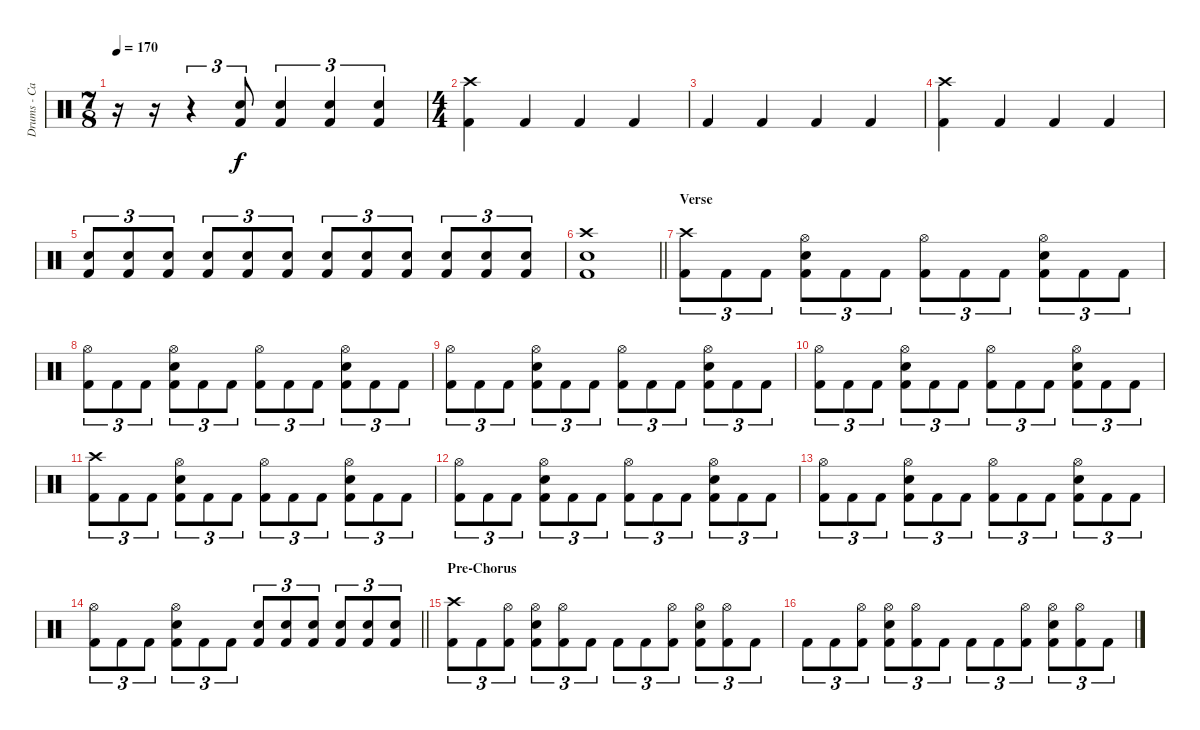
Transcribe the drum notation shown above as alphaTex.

\track ("Drums - Casey Grillo" "Drums - Ca") {instrument percussion}
\staff {score}
\articulation defaults
\ts (7 8)
\tempo 170
\clef neutral
\ks c
r.16{dy f} r.16 r.4{tu (3 2)} ("Snare (hit) 2" "Kick (hit) 2").8{tu (3 2)} ("Snare (hit) 2" "Kick (hit) 2").4{tu (3 2)} ("Snare (hit) 2" "Kick (hit) 2").4{tu (3 2)} ("Snare (hit) 2" "Kick (hit) 2").4{tu (3 2)} |
\ts (4 4)
("Crash high (hit)" "Kick (hit) 2").4 "Kick (hit) 2".4 "Kick (hit) 2".4 "Kick (hit) 2".4 |
"Kick (hit) 2".4 "Kick (hit) 2".4 "Kick (hit) 2".4 "Kick (hit) 2".4 |
("Crash high (hit)" "Kick (hit) 2").4 "Kick (hit) 2".4 "Kick (hit) 2".4 "Kick (hit) 2".4 |
("Snare (hit) 2" "Kick (hit) 2").8{tu (3 2)} ("Snare (hit) 2" "Kick (hit) 2").8{tu (3 2)} ("Snare (hit) 2" "Kick (hit) 2").8{tu (3 2)} ("Snare (hit) 2" "Kick (hit) 2").8{tu (3 2)} ("Snare (hit) 2" "Kick (hit) 2").8{tu (3 2)} ("Snare (hit) 2" "Kick (hit) 2").8{tu (3 2)} ("Snare (hit) 2" "Kick (hit) 2").8{tu (3 2)} ("Snare (hit) 2" "Kick (hit) 2").8{tu (3 2)} ("Snare (hit) 2" "Kick (hit) 2").8{tu (3 2)} ("Snare (hit) 2" "Kick (hit) 2").8{tu (3 2)} ("Snare (hit) 2" "Kick (hit) 2").8{tu (3 2)} ("Snare (hit) 2" "Kick (hit) 2").8{tu (3 2)} |
\barLineRight lightlight
("Crash high (hit)" "Snare (hit) 2" "Kick (hit) 2").1 |
\section ("" "Verse")
("Crash high (hit)" "Kick (hit) 2").8{tu (3 2)} "Kick (hit) 2".8{tu (3 2)} "Kick (hit) 2".8{tu (3 2)} ("Hi-Hat (open)" "Snare (hit) 2" "Kick (hit) 2").8{tu (3 2)} "Kick (hit) 2".8{tu (3 2)} "Kick (hit) 2".8{tu (3 2)} ("Hi-Hat (open)" "Kick (hit) 2").8{tu (3 2)} "Kick (hit) 2".8{tu (3 2)} "Kick (hit) 2".8{tu (3 2)} ("Hi-Hat (open)" "Snare (hit) 2" "Kick (hit) 2").8{tu (3 2)} "Kick (hit) 2".8{tu (3 2)} "Kick (hit) 2".8{tu (3 2)} |
("Hi-Hat (open)" "Kick (hit) 2").8{tu (3 2)} "Kick (hit) 2".8{tu (3 2)} "Kick (hit) 2".8{tu (3 2)} ("Hi-Hat (open)" "Snare (hit) 2" "Kick (hit) 2").8{tu (3 2)} "Kick (hit) 2".8{tu (3 2)} "Kick (hit) 2".8{tu (3 2)} ("Hi-Hat (open)" "Kick (hit) 2").8{tu (3 2)} "Kick (hit) 2".8{tu (3 2)} "Kick (hit) 2".8{tu (3 2)} ("Hi-Hat (open)" "Snare (hit) 2" "Kick (hit) 2").8{tu (3 2)} "Kick (hit) 2".8{tu (3 2)} "Kick (hit) 2".8{tu (3 2)} |
("Hi-Hat (open)" "Kick (hit) 2").8{tu (3 2)} "Kick (hit) 2".8{tu (3 2)} "Kick (hit) 2".8{tu (3 2)} ("Hi-Hat (open)" "Snare (hit) 2" "Kick (hit) 2").8{tu (3 2)} "Kick (hit) 2".8{tu (3 2)} "Kick (hit) 2".8{tu (3 2)} ("Hi-Hat (open)" "Kick (hit) 2").8{tu (3 2)} "Kick (hit) 2".8{tu (3 2)} "Kick (hit) 2".8{tu (3 2)} ("Hi-Hat (open)" "Snare (hit) 2" "Kick (hit) 2").8{tu (3 2)} "Kick (hit) 2".8{tu (3 2)} "Kick (hit) 2".8{tu (3 2)} |
("Hi-Hat (open)" "Kick (hit) 2").8{tu (3 2)} "Kick (hit) 2".8{tu (3 2)} "Kick (hit) 2".8{tu (3 2)} ("Hi-Hat (open)" "Snare (hit) 2" "Kick (hit) 2").8{tu (3 2)} "Kick (hit) 2".8{tu (3 2)} "Kick (hit) 2".8{tu (3 2)} ("Hi-Hat (open)" "Kick (hit) 2").8{tu (3 2)} "Kick (hit) 2".8{tu (3 2)} "Kick (hit) 2".8{tu (3 2)} ("Hi-Hat (open)" "Snare (hit) 2" "Kick (hit) 2").8{tu (3 2)} "Kick (hit) 2".8{tu (3 2)} "Kick (hit) 2".8{tu (3 2)} |
("Crash high (hit)" "Kick (hit) 2").8{tu (3 2)} "Kick (hit) 2".8{tu (3 2)} "Kick (hit) 2".8{tu (3 2)} ("Hi-Hat (open)" "Snare (hit) 2" "Kick (hit) 2").8{tu (3 2)} "Kick (hit) 2".8{tu (3 2)} "Kick (hit) 2".8{tu (3 2)} ("Hi-Hat (open)" "Kick (hit) 2").8{tu (3 2)} "Kick (hit) 2".8{tu (3 2)} "Kick (hit) 2".8{tu (3 2)} ("Hi-Hat (open)" "Snare (hit) 2" "Kick (hit) 2").8{tu (3 2)} "Kick (hit) 2".8{tu (3 2)} "Kick (hit) 2".8{tu (3 2)} |
("Hi-Hat (open)" "Kick (hit) 2").8{tu (3 2)} "Kick (hit) 2".8{tu (3 2)} "Kick (hit) 2".8{tu (3 2)} ("Hi-Hat (open)" "Snare (hit) 2" "Kick (hit) 2").8{tu (3 2)} "Kick (hit) 2".8{tu (3 2)} "Kick (hit) 2".8{tu (3 2)} ("Hi-Hat (open)" "Kick (hit) 2").8{tu (3 2)} "Kick (hit) 2".8{tu (3 2)} "Kick (hit) 2".8{tu (3 2)} ("Hi-Hat (open)" "Snare (hit) 2" "Kick (hit) 2").8{tu (3 2)} "Kick (hit) 2".8{tu (3 2)} "Kick (hit) 2".8{tu (3 2)} |
("Hi-Hat (open)" "Kick (hit) 2").8{tu (3 2)} "Kick (hit) 2".8{tu (3 2)} "Kick (hit) 2".8{tu (3 2)} ("Hi-Hat (open)" "Snare (hit) 2" "Kick (hit) 2").8{tu (3 2)} "Kick (hit) 2".8{tu (3 2)} "Kick (hit) 2".8{tu (3 2)} ("Hi-Hat (open)" "Kick (hit) 2").8{tu (3 2)} "Kick (hit) 2".8{tu (3 2)} "Kick (hit) 2".8{tu (3 2)} ("Hi-Hat (open)" "Snare (hit) 2" "Kick (hit) 2").8{tu (3 2)} "Kick (hit) 2".8{tu (3 2)} "Kick (hit) 2".8{tu (3 2)} |
\barLineRight lightlight
("Hi-Hat (open)" "Kick (hit) 2").8{tu (3 2)} "Kick (hit) 2".8{tu (3 2)} "Kick (hit) 2".8{tu (3 2)} ("Hi-Hat (open)" "Snare (hit) 2" "Kick (hit) 2").8{tu (3 2)} "Kick (hit) 2".8{tu (3 2)} "Kick (hit) 2".8{tu (3 2)} ("Snare (hit) 2" "Kick (hit) 2").8{tu (3 2)} ("Snare (hit) 2" "Kick (hit) 2").8{tu (3 2)} ("Snare (hit) 2" "Kick (hit) 2").8{tu (3 2)} ("Snare (hit) 2" "Kick (hit) 2").8{tu (3 2)} ("Snare (hit) 2" "Kick (hit) 2").8{tu (3 2)} ("Snare (hit) 2" "Kick (hit) 2").8{tu (3 2)} |
\section ("" "Pre-Chorus")
("Crash high (hit)" "Kick (hit) 2").8{tu (3 2)} "Kick (hit) 2".8{tu (3 2)} ("Hi-Hat (open)" "Kick (hit) 2").8{tu (3 2)} ("Hi-Hat (open)" "Snare (hit) 2" "Kick (hit) 2").8{tu (3 2)} ("Hi-Hat (open)" "Kick (hit) 2").8{tu (3 2)} "Kick (hit) 2".8{tu (3 2)} "Kick (hit) 2".8{tu (3 2)} "Kick (hit) 2".8{tu (3 2)} ("Hi-Hat (open)" "Kick (hit) 2").8{tu (3 2)} ("Hi-Hat (open)" "Snare (hit) 2" "Kick (hit) 2").8{tu (3 2)} ("Hi-Hat (open)" "Kick (hit) 2").8{tu (3 2)} "Kick (hit) 2".8{tu (3 2)} |
"Kick (hit) 2".8{tu (3 2)} "Kick (hit) 2".8{tu (3 2)} ("Hi-Hat (open)" "Kick (hit) 2").8{tu (3 2)} ("Hi-Hat (open)" "Snare (hit) 2" "Kick (hit) 2").8{tu (3 2)} ("Hi-Hat (open)" "Kick (hit) 2").8{tu (3 2)} "Kick (hit) 2".8{tu (3 2)} "Kick (hit) 2".8{tu (3 2)} "Kick (hit) 2".8{tu (3 2)} ("Hi-Hat (open)" "Kick (hit) 2").8{tu (3 2)} ("Hi-Hat (open)" "Snare (hit) 2" "Kick (hit) 2").8{tu (3 2)} ("Hi-Hat (open)" "Kick (hit) 2").8{tu (3 2)} "Kick (hit) 2".8{tu (3 2)}
